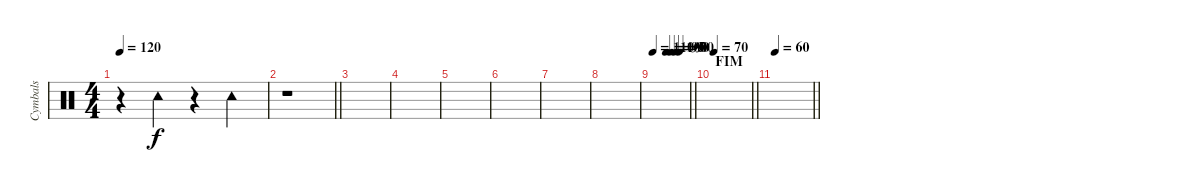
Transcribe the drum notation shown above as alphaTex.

\track ("Cymbals" "Cymbals") {instrument percussion}
\staff {score}
\articulation defaults
\ts (4 4)
\tempo 120
\clef neutral
\ks c
r.4{dy f} "Tambourine (hit)".4 r.4 "Tambourine (hit)".4 |
\barLineRight lightlight
r.1 |
|
|
|
|
|
|
\tempo 110
\tempo (100 0.375)
\tempo (95 0.5)
\tempo (90 0.625)
\tempo (80 0.75)
\barLineRight lightlight
|
\section ("" "FIM")
\tempo 70
\barLineRight lightlight
|
\tempo 60
\barLineRight lightlight
